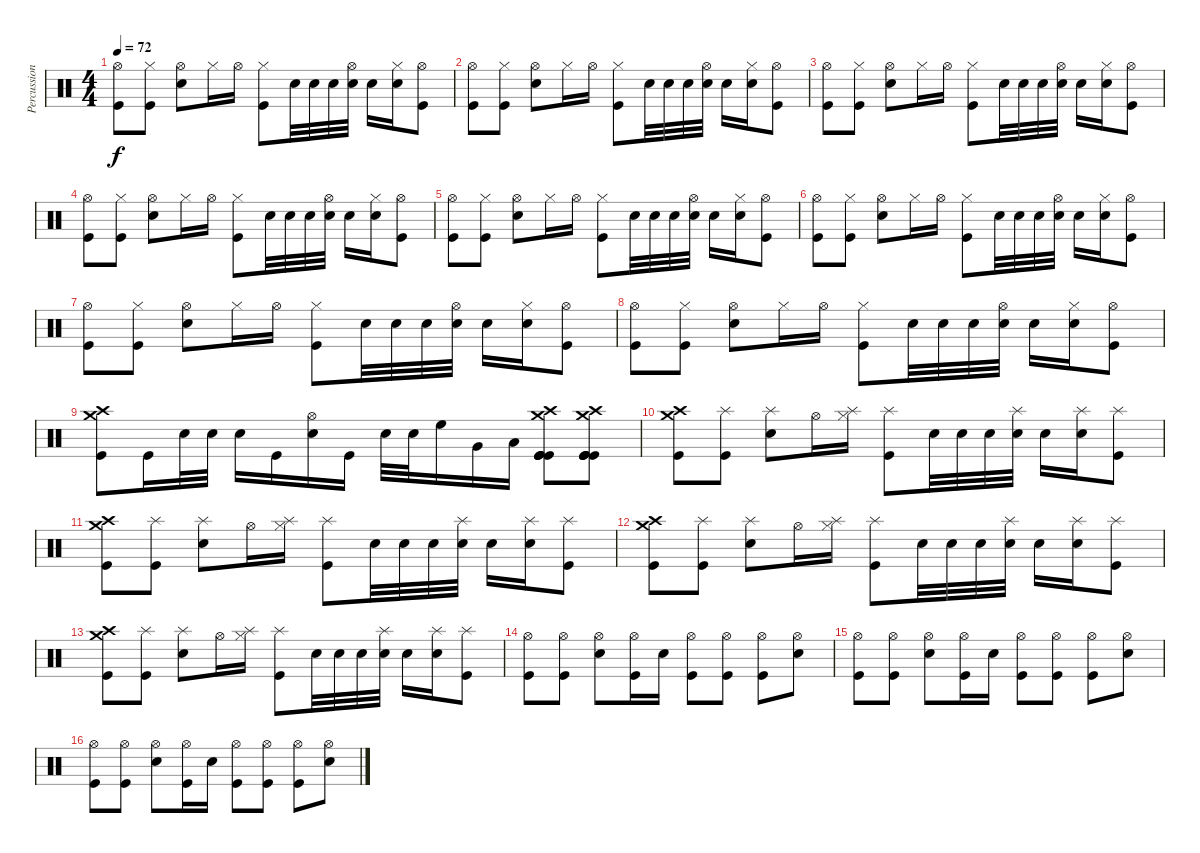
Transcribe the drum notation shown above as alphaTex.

\track ("Percussions" "Percussion") {instrument percussion}
\staff {score}
\articulation defaults
\ts (4 4)
\tempo 72
\clef neutral
\ks c
("Hi-Hat (open)" "Kick (hit)").8{dy f} ("Hi-Hat (closed)" "Kick (hit)").8 ("Hi-Hat (open)" "Electric Snare (hit)").8 "Hi-Hat (closed)".16 "Hi-Hat (open)".16 ("Hi-Hat (closed)" "Kick (hit)").8 "Electric Snare (hit)".32 "Electric Snare (hit)".32 "Electric Snare (hit)".32 ("Hi-Hat (open)" "Electric Snare (hit)").32 "Electric Snare (hit)".16 ("Hi-Hat (closed)" "Electric Snare (hit)").16 ("Hi-Hat (open)" "Kick (hit)").8 |
("Hi-Hat (open)" "Kick (hit)").8 ("Hi-Hat (closed)" "Kick (hit)").8 ("Hi-Hat (open)" "Electric Snare (hit)").8 "Hi-Hat (closed)".16 "Hi-Hat (open)".16 ("Hi-Hat (closed)" "Kick (hit)").8 "Electric Snare (hit)".32 "Electric Snare (hit)".32 "Electric Snare (hit)".32 ("Hi-Hat (open)" "Electric Snare (hit)").32 "Electric Snare (hit)".16 ("Hi-Hat (closed)" "Electric Snare (hit)").16 ("Hi-Hat (open)" "Kick (hit)").8 |
("Hi-Hat (open)" "Kick (hit)").8 ("Hi-Hat (closed)" "Kick (hit)").8 ("Hi-Hat (open)" "Electric Snare (hit)").8 "Hi-Hat (closed)".16 "Hi-Hat (open)".16 ("Hi-Hat (closed)" "Kick (hit)").8 "Electric Snare (hit)".32 "Electric Snare (hit)".32 "Electric Snare (hit)".32 ("Hi-Hat (open)" "Electric Snare (hit)").32 "Electric Snare (hit)".16 ("Hi-Hat (closed)" "Electric Snare (hit)").16 ("Hi-Hat (open)" "Kick (hit)").8 |
("Hi-Hat (open)" "Kick (hit)").8 ("Hi-Hat (closed)" "Kick (hit)").8 ("Hi-Hat (open)" "Electric Snare (hit)").8 "Hi-Hat (closed)".16 "Hi-Hat (open)".16 ("Hi-Hat (closed)" "Kick (hit)").8 "Electric Snare (hit)".32 "Electric Snare (hit)".32 "Electric Snare (hit)".32 ("Hi-Hat (open)" "Electric Snare (hit)").32 "Electric Snare (hit)".16 ("Hi-Hat (closed)" "Electric Snare (hit)").16 ("Hi-Hat (open)" "Kick (hit)").8 |
("Hi-Hat (open)" "Kick (hit)").8 ("Hi-Hat (closed)" "Kick (hit)").8 ("Hi-Hat (open)" "Electric Snare (hit)").8 "Hi-Hat (closed)".16 "Hi-Hat (open)".16 ("Hi-Hat (closed)" "Kick (hit)").8 "Electric Snare (hit)".32 "Electric Snare (hit)".32 "Electric Snare (hit)".32 ("Hi-Hat (open)" "Electric Snare (hit)").32 "Electric Snare (hit)".16 ("Hi-Hat (closed)" "Electric Snare (hit)").16 ("Hi-Hat (open)" "Kick (hit)").8 |
("Hi-Hat (open)" "Kick (hit)").8 ("Hi-Hat (closed)" "Kick (hit)").8 ("Hi-Hat (open)" "Electric Snare (hit)").8 "Hi-Hat (closed)".16 "Hi-Hat (open)".16 ("Hi-Hat (closed)" "Kick (hit)").8 "Electric Snare (hit)".32 "Electric Snare (hit)".32 "Electric Snare (hit)".32 ("Hi-Hat (open)" "Electric Snare (hit)").32 "Electric Snare (hit)".16 ("Hi-Hat (closed)" "Electric Snare (hit)").16 ("Hi-Hat (open)" "Kick (hit)").8 |
("Hi-Hat (open)" "Kick (hit)").8 ("Hi-Hat (closed)" "Kick (hit)").8 ("Hi-Hat (open)" "Electric Snare (hit)").8 "Hi-Hat (closed)".16 "Hi-Hat (open)".16 ("Hi-Hat (closed)" "Kick (hit)").8 "Electric Snare (hit)".32 "Electric Snare (hit)".32 "Electric Snare (hit)".32 ("Hi-Hat (open)" "Electric Snare (hit)").32 "Electric Snare (hit)".16 ("Hi-Hat (closed)" "Electric Snare (hit)").16 ("Hi-Hat (open)" "Kick (hit)").8 |
("Hi-Hat (open)" "Kick (hit)").8 ("Hi-Hat (closed)" "Kick (hit)").8 ("Hi-Hat (open)" "Electric Snare (hit)").8 "Hi-Hat (closed)".16 "Hi-Hat (open)".16 ("Hi-Hat (closed)" "Kick (hit)").8 "Electric Snare (hit)".32 "Electric Snare (hit)".32 "Electric Snare (hit)".32 ("Hi-Hat (open)" "Electric Snare (hit)").32 "Electric Snare (hit)".16 ("Hi-Hat (closed)" "Electric Snare (hit)").16 ("Hi-Hat (open)" "Kick (hit)").8 |
("Crash medium (hit)" "Crash high (hit)" "Kick (hit)").8 "Kick (hit)".16 "Electric Snare (hit)".32 "Snare (hit) 2".32 "Electric Snare (hit)".16 "Kick (hit)".16 ("Hi-Hat (open)" "Electric Snare (hit)").16 "Kick (hit)".16 "Electric Snare (hit)".32 "Snare (hit) 2".32 "High Floor Tom (hit)".16 "Very Low Tom (hit)".16 "Low Floor Tom (hit)".16 ("Crash medium (hit)" "Crash high (hit)" "Kick (hit)" "Kick (hit)" "Kick (hit)" "Kick (hit)").8 ("Crash medium (hit)" "Crash high (hit)" "Kick (hit)" "Kick (hit)" "Kick (hit)" "Kick (hit)").8 |
("Crash medium (hit)" "Crash high (hit)" "Kick (hit)").8 ("Splash (hit)" "Kick (hit)").8 ("Splash (hit)" "Electric Snare (hit)").8 "Hi-Hat (open)".16 ("Hi-Hat (closed)" "Splash (hit)").16 ("Splash (hit)" "Kick (hit)").8 "Electric Snare (hit)".32 "Electric Snare (hit)".32 "Electric Snare (hit)".32 ("Splash (hit)" "Electric Snare (hit)").32 "Electric Snare (hit)".16 ("Splash (hit)" "Electric Snare (hit)").16 ("Splash (hit)" "Kick (hit)").8 |
("Crash medium (hit)" "Crash high (hit)" "Kick (hit)").8 ("Splash (hit)" "Kick (hit)").8 ("Splash (hit)" "Electric Snare (hit)").8 "Hi-Hat (open)".16 ("Hi-Hat (closed)" "Splash (hit)").16 ("Splash (hit)" "Kick (hit)").8 "Electric Snare (hit)".32 "Electric Snare (hit)".32 "Electric Snare (hit)".32 ("Splash (hit)" "Electric Snare (hit)").32 "Electric Snare (hit)".16 ("Splash (hit)" "Electric Snare (hit)").16 ("Splash (hit)" "Kick (hit)").8 |
("Crash medium (hit)" "Crash high (hit)" "Kick (hit)").8 ("Splash (hit)" "Kick (hit)").8 ("Splash (hit)" "Electric Snare (hit)").8 "Hi-Hat (open)".16 ("Hi-Hat (closed)" "Splash (hit)").16 ("Splash (hit)" "Kick (hit)").8 "Electric Snare (hit)".32 "Electric Snare (hit)".32 "Electric Snare (hit)".32 ("Splash (hit)" "Electric Snare (hit)").32 "Electric Snare (hit)".16 ("Splash (hit)" "Electric Snare (hit)").16 ("Splash (hit)" "Kick (hit)").8 |
("Crash medium (hit)" "Crash high (hit)" "Kick (hit)").8 ("Splash (hit)" "Kick (hit)").8 ("Splash (hit)" "Electric Snare (hit)").8 "Hi-Hat (open)".16 ("Hi-Hat (closed)" "Splash (hit)").16 ("Splash (hit)" "Kick (hit)").8 "Electric Snare (hit)".32 "Electric Snare (hit)".32 "Electric Snare (hit)".32 ("Splash (hit)" "Electric Snare (hit)").32 "Electric Snare (hit)".16 ("Splash (hit)" "Electric Snare (hit)").16 ("Splash (hit)" "Kick (hit)").8 |
("Hi-Hat (open)" "Kick (hit)").8 ("Hi-Hat (open)" "Kick (hit)").8 ("Hi-Hat (open)" "Electric Snare (hit)").8 ("Hi-Hat (open)" "Kick (hit)").16 "Electric Snare (hit)".16 ("Hi-Hat (open)" "Kick (hit)").8 ("Hi-Hat (open)" "Kick (hit)").8 ("Hi-Hat (open)" "Kick (hit)").8 ("Hi-Hat (open)" "Electric Snare (hit)").8 |
("Hi-Hat (open)" "Kick (hit)").8 ("Hi-Hat (open)" "Kick (hit)").8 ("Hi-Hat (open)" "Electric Snare (hit)").8 ("Hi-Hat (open)" "Kick (hit)").16 "Electric Snare (hit)".16 ("Hi-Hat (open)" "Kick (hit)").8 ("Hi-Hat (open)" "Kick (hit)").8 ("Hi-Hat (open)" "Kick (hit)").8 ("Hi-Hat (open)" "Electric Snare (hit)").8 |
("Hi-Hat (open)" "Kick (hit)").8 ("Hi-Hat (open)" "Kick (hit)").8 ("Hi-Hat (open)" "Electric Snare (hit)").8 ("Hi-Hat (open)" "Kick (hit)").16 "Electric Snare (hit)".16 ("Hi-Hat (open)" "Kick (hit)").8 ("Hi-Hat (open)" "Kick (hit)").8 ("Hi-Hat (open)" "Kick (hit)").8 ("Hi-Hat (open)" "Electric Snare (hit)").8
